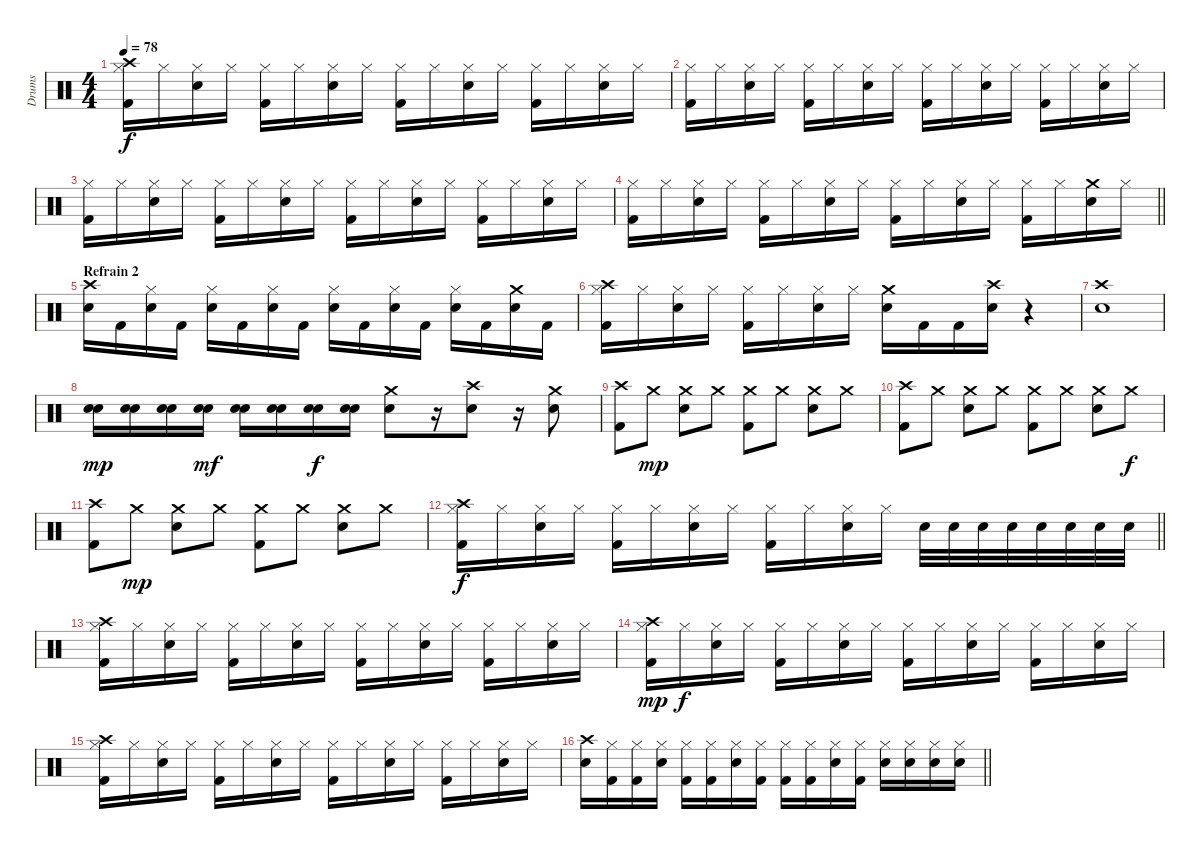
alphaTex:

\track ("Drums" "Drums") {instrument percussion}
\staff {score}
\articulation defaults
\ts (4 4)
\tempo 78
\clef neutral
\ks c
("Crash high (hit)" "Hi-Hat (closed)" "Kick (hit) 2").16{dy f} "Hi-Hat (closed)".16 ("Hi-Hat (closed)" "Snare (hit) 2").16 "Hi-Hat (closed)".16 ("Hi-Hat (closed)" "Kick (hit) 2").16 "Hi-Hat (closed)".16 ("Hi-Hat (closed)" "Snare (hit) 2").16 "Hi-Hat (closed)".16 ("Hi-Hat (closed)" "Kick (hit) 2").16 "Hi-Hat (closed)".16 ("Hi-Hat (closed)" "Snare (hit) 2").16 "Hi-Hat (closed)".16 ("Hi-Hat (closed)" "Kick (hit) 2").16 "Hi-Hat (closed)".16 ("Hi-Hat (closed)" "Snare (hit) 2").16 "Hi-Hat (closed)".16 |
("Hi-Hat (closed)" "Kick (hit) 2").16 "Hi-Hat (closed)".16 ("Hi-Hat (closed)" "Snare (hit) 2").16 "Hi-Hat (closed)".16 ("Hi-Hat (closed)" "Kick (hit) 2").16 "Hi-Hat (closed)".16 ("Hi-Hat (closed)" "Snare (hit) 2").16 "Hi-Hat (closed)".16 ("Hi-Hat (closed)" "Kick (hit) 2").16 "Hi-Hat (closed)".16 ("Hi-Hat (closed)" "Snare (hit) 2").16 "Hi-Hat (closed)".16 ("Hi-Hat (closed)" "Kick (hit) 2").16 "Hi-Hat (closed)".16 ("Hi-Hat (closed)" "Snare (hit) 2").16 "Hi-Hat (closed)".16 |
("Hi-Hat (closed)" "Kick (hit) 2").16 "Hi-Hat (closed)".16 ("Hi-Hat (closed)" "Snare (hit) 2").16 "Hi-Hat (closed)".16 ("Hi-Hat (closed)" "Kick (hit) 2").16 "Hi-Hat (closed)".16 ("Hi-Hat (closed)" "Snare (hit) 2").16 "Hi-Hat (closed)".16 ("Hi-Hat (closed)" "Kick (hit) 2").16 "Hi-Hat (closed)".16 ("Hi-Hat (closed)" "Snare (hit) 2").16 "Hi-Hat (closed)".16 ("Hi-Hat (closed)" "Kick (hit) 2").16 "Hi-Hat (closed)".16 ("Hi-Hat (closed)" "Snare (hit) 2").16 "Hi-Hat (closed)".16 |
\barLineRight lightlight
("Hi-Hat (closed)" "Kick (hit) 2").16 "Hi-Hat (closed)".16 ("Hi-Hat (closed)" "Snare (hit) 2").16 "Hi-Hat (closed)".16 ("Hi-Hat (closed)" "Kick (hit) 2").16 "Hi-Hat (closed)".16 ("Hi-Hat (closed)" "Snare (hit) 2").16 "Hi-Hat (closed)".16 ("Hi-Hat (closed)" "Kick (hit) 2").16 "Hi-Hat (closed)".16 ("Hi-Hat (closed)" "Snare (hit) 2").16 "Hi-Hat (closed)".16 ("Hi-Hat (closed)" "Kick (hit) 2").16 "Hi-Hat (closed)".16 ("Crash medium (hit)" "Snare (hit) 2").16 "Hi-Hat (closed)".16 |
\section ("" "Refrain 2")
("Crash high (hit)" "Snare (hit) 2").16 "Kick (hit) 2".16 ("Hi-Hat (closed)" "Snare (hit) 2").16 "Kick (hit) 2".16 ("Hi-Hat (closed)" "Snare (hit) 2").16 "Kick (hit) 2".16 ("Hi-Hat (closed)" "Snare (hit) 2").16 "Kick (hit) 2".16 ("Hi-Hat (closed)" "Snare (hit) 2").16 "Kick (hit) 2".16 ("Hi-Hat (closed)" "Snare (hit) 2").16 "Kick (hit) 2".16 ("Hi-Hat (closed)" "Snare (hit) 2").16 "Kick (hit) 2".16 ("Crash medium (hit)" "Snare (hit) 2").16 "Kick (hit) 2".16 |
("Crash high (hit)" "Hi-Hat (closed)" "Kick (hit) 2").16 "Hi-Hat (closed)".16 ("Hi-Hat (closed)" "Snare (hit) 2").16 "Hi-Hat (closed)".16 ("Hi-Hat (closed)" "Kick (hit) 2").16 "Hi-Hat (closed)".16 ("Hi-Hat (closed)" "Snare (hit) 2").16 "Hi-Hat (closed)".16 ("Crash medium (hit)" "Snare (hit) 2").16 "Kick (hit) 2".16 "Kick (hit) 2".16 ("Crash high (hit)" "Snare (hit) 2").16 r.4 |
("Crash high (hit)" "Snare (hit) 2").1 |
("Electric Snare (hit)" "Snare (hit) 2").16{dy mp} ("Electric Snare (hit)" "Snare (hit) 2").16 ("Electric Snare (hit)" "Snare (hit) 2").16 ("Electric Snare (hit)" "Snare (hit) 2").16{dy mf} ("Electric Snare (hit)" "Snare (hit) 2").16 ("Electric Snare (hit)" "Snare (hit) 2").16 ("Electric Snare (hit)" "Snare (hit) 2").16{dy f} ("Electric Snare (hit)" "Snare (hit) 2").16 ("Crash medium (hit)" "Snare (hit) 2").8 r.16 ("Crash high (hit)" "Snare (hit) 2").8 r.16 ("Crash medium (hit)" "Snare (hit) 2").8 |
("Crash high (hit)" "Kick (hit) 2").8 "Crash medium (hit)".8{dy mp} ("Crash medium (hit)" "Snare (hit) 2").8 "Crash medium (hit)".8 ("Crash medium (hit)" "Kick (hit) 2").8 "Crash medium (hit)".8 ("Crash medium (hit)" "Snare (hit) 2").8 "Crash medium (hit)".8 |
("Crash high (hit)" "Kick (hit) 2").8 "Crash medium (hit)".8 ("Crash medium (hit)" "Snare (hit) 2").8 "Crash medium (hit)".8 ("Crash medium (hit)" "Kick (hit) 2").8 "Crash medium (hit)".8 ("Crash medium (hit)" "Snare (hit) 2").8 "Crash medium (hit)".8{dy f} |
("Crash high (hit)" "Kick (hit) 2").8 "Crash medium (hit)".8{dy mp} ("Crash medium (hit)" "Snare (hit) 2").8 "Crash medium (hit)".8 ("Crash medium (hit)" "Kick (hit) 2").8 "Crash medium (hit)".8 ("Crash medium (hit)" "Snare (hit) 2").8 "Crash medium (hit)".8 |
\barLineRight lightlight
("Crash high (hit)" "Hi-Hat (closed)" "Kick (hit) 2").16{dy f} "Hi-Hat (closed)".16 ("Hi-Hat (closed)" "Snare (hit) 2").16 "Hi-Hat (closed)".16 ("Hi-Hat (closed)" "Kick (hit) 2").16 "Hi-Hat (closed)".16 ("Hi-Hat (closed)" "Snare (hit) 2").16 "Hi-Hat (closed)".16 ("Hi-Hat (closed)" "Kick (hit) 2").16 "Hi-Hat (closed)".16 ("Hi-Hat (closed)" "Snare (hit) 2").16 "Hi-Hat (closed)".16 "Snare (hit) 2".32 "Snare (hit) 2".32 "Snare (hit) 2".32 "Snare (hit) 2".32 "Snare (hit) 2".32 "Snare (hit) 2".32 "Snare (hit) 2".32 "Snare (hit) 2".32 |
("Crash high (hit)" "Hi-Hat (closed)" "Kick (hit) 2").16 "Hi-Hat (closed)".16 ("Hi-Hat (closed)" "Snare (hit) 2").16 "Hi-Hat (closed)".16 ("Hi-Hat (closed)" "Kick (hit) 2").16 "Hi-Hat (closed)".16 ("Hi-Hat (closed)" "Snare (hit) 2").16 "Hi-Hat (closed)".16 ("Hi-Hat (closed)" "Kick (hit) 2").16 "Hi-Hat (closed)".16 ("Hi-Hat (closed)" "Snare (hit) 2").16 "Hi-Hat (closed)".16 ("Hi-Hat (closed)" "Kick (hit) 2").16 "Hi-Hat (closed)".16 ("Hi-Hat (closed)" "Snare (hit) 2").16 "Hi-Hat (closed)".16 |
("Crash high (hit)" "Hi-Hat (closed)" "Kick (hit) 2").16{dy mp} "Hi-Hat (closed)".16{dy f} ("Hi-Hat (closed)" "Snare (hit) 2").16 "Hi-Hat (closed)".16 ("Hi-Hat (closed)" "Kick (hit) 2").16 "Hi-Hat (closed)".16 ("Hi-Hat (closed)" "Snare (hit) 2").16 "Hi-Hat (closed)".16 ("Hi-Hat (closed)" "Kick (hit) 2").16 "Hi-Hat (closed)".16 ("Hi-Hat (closed)" "Snare (hit) 2").16 "Hi-Hat (closed)".16 ("Hi-Hat (closed)" "Kick (hit) 2").16 "Hi-Hat (closed)".16 ("Hi-Hat (closed)" "Snare (hit) 2").16 "Hi-Hat (closed)".16 |
("Crash high (hit)" "Hi-Hat (closed)" "Kick (hit) 2").16 "Hi-Hat (closed)".16 ("Hi-Hat (closed)" "Snare (hit) 2").16 "Hi-Hat (closed)".16 ("Hi-Hat (closed)" "Kick (hit) 2").16 "Hi-Hat (closed)".16 ("Hi-Hat (closed)" "Snare (hit) 2").16 "Hi-Hat (closed)".16 ("Hi-Hat (closed)" "Kick (hit) 2").16 "Hi-Hat (closed)".16 ("Hi-Hat (closed)" "Snare (hit) 2").16 "Hi-Hat (closed)".16 ("Hi-Hat (closed)" "Kick (hit) 2").16 "Hi-Hat (closed)".16 ("Hi-Hat (closed)" "Snare (hit) 2").16 "Hi-Hat (closed)".16 |
\barLineRight lightlight
("Crash high (hit)" "Snare (hit) 2").16 ("Hi-Hat (closed)" "Kick (hit) 2").16 ("Hi-Hat (closed)" "Kick (hit) 2").16 ("Hi-Hat (closed)" "Snare (hit) 2").16 ("Hi-Hat (closed)" "Kick (hit) 2").16 ("Hi-Hat (closed)" "Kick (hit) 2").16 ("Hi-Hat (closed)" "Snare (hit) 2").16 ("Hi-Hat (closed)" "Kick (hit) 2").16 ("Hi-Hat (closed)" "Kick (hit) 2").16 ("Hi-Hat (closed)" "Kick (hit) 2").16 ("Hi-Hat (closed)" "Snare (hit) 2").16 ("Hi-Hat (closed)" "Kick (hit) 2").16 ("Hi-Hat (closed)" "Snare (hit) 2").16 ("Hi-Hat (closed)" "Snare (hit) 2").16 ("Hi-Hat (closed)" "Snare (hit) 2").16 ("Hi-Hat (closed)" "Snare (hit) 2").16
